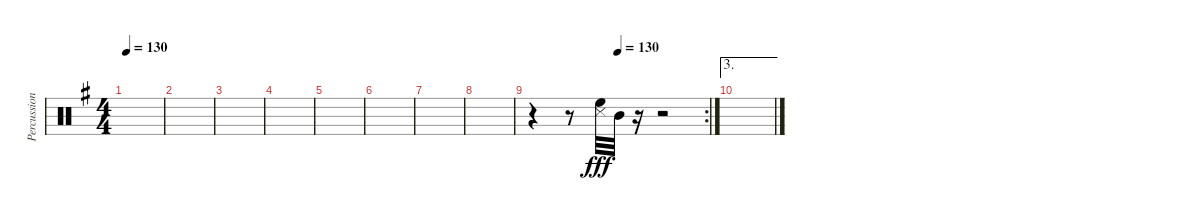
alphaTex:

\track ("Percussion" "Percussion") {instrument percussion}
\staff {score}
\articulation defaults
\ts (4 4)
\tempo 130
\clef neutral
\ks g
|
|
|
|
|
|
|
|
\rc 2
\tempo (130 0.5)
r.4 r.8 ("Snare (side stick) 3" "High Floor Tom (hit)").32{dy fff} "Mid Tom (hit)".32 r.16 r.2 |
\ae 3
